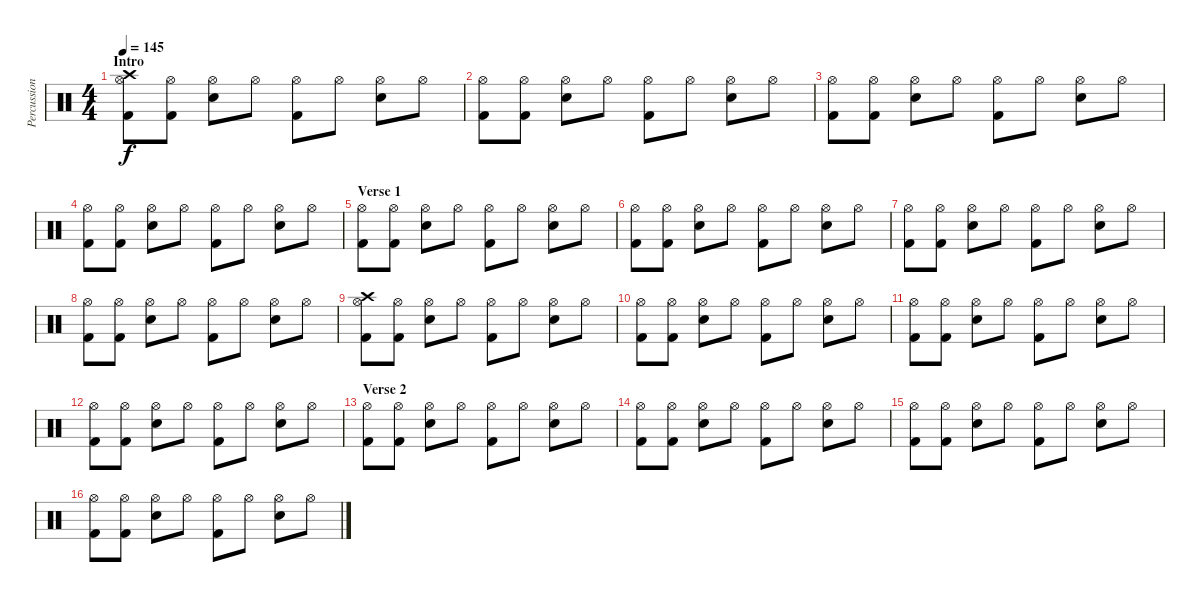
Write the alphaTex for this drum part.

\track ("Percussion" "Percussion") {instrument percussion}
\staff {score}
\articulation defaults
\ts (4 4)
\section ("" "Intro")
\tempo 145
\clef neutral
\ks c
("Hi-Hat (open)" "Kick (hit) 2" "Crash high (hit)").8{dy f} ("Hi-Hat (open)" "Kick (hit) 2").8 ("Hi-Hat (open)" "Snare (hit) 2").8 "Hi-Hat (open)".8 ("Hi-Hat (open)" "Kick (hit) 2").8 "Hi-Hat (open)".8 ("Hi-Hat (open)" "Snare (hit) 2").8 "Hi-Hat (open)".8 |
("Hi-Hat (open)" "Kick (hit) 2").8 ("Hi-Hat (open)" "Kick (hit) 2").8 ("Hi-Hat (open)" "Snare (hit) 2").8 "Hi-Hat (open)".8 ("Hi-Hat (open)" "Kick (hit) 2").8 "Hi-Hat (open)".8 ("Hi-Hat (open)" "Snare (hit) 2").8 "Hi-Hat (open)".8 |
("Hi-Hat (open)" "Kick (hit) 2").8 ("Hi-Hat (open)" "Kick (hit) 2").8 ("Hi-Hat (open)" "Snare (hit) 2").8 "Hi-Hat (open)".8 ("Hi-Hat (open)" "Kick (hit) 2").8 "Hi-Hat (open)".8 ("Hi-Hat (open)" "Snare (hit) 2").8 "Hi-Hat (open)".8 |
("Hi-Hat (open)" "Kick (hit) 2").8 ("Hi-Hat (open)" "Kick (hit) 2").8 ("Hi-Hat (open)" "Snare (hit) 2").8 "Hi-Hat (open)".8 ("Hi-Hat (open)" "Kick (hit) 2").8 "Hi-Hat (open)".8 ("Hi-Hat (open)" "Snare (hit) 2").8 "Hi-Hat (open)".8 |
\section ("" "Verse 1")
("Hi-Hat (open)" "Kick (hit) 2").8 ("Hi-Hat (open)" "Kick (hit) 2").8 ("Hi-Hat (open)" "Snare (hit) 2").8 "Hi-Hat (open)".8 ("Hi-Hat (open)" "Kick (hit) 2").8 "Hi-Hat (open)".8 ("Hi-Hat (open)" "Snare (hit) 2").8 "Hi-Hat (open)".8 |
("Hi-Hat (open)" "Kick (hit) 2").8 ("Hi-Hat (open)" "Kick (hit) 2").8 ("Hi-Hat (open)" "Snare (hit) 2").8 "Hi-Hat (open)".8 ("Hi-Hat (open)" "Kick (hit) 2").8 "Hi-Hat (open)".8 ("Hi-Hat (open)" "Snare (hit) 2").8 "Hi-Hat (open)".8 |
("Hi-Hat (open)" "Kick (hit) 2").8 ("Hi-Hat (open)" "Kick (hit) 2").8 ("Hi-Hat (open)" "Snare (hit) 2").8 "Hi-Hat (open)".8 ("Hi-Hat (open)" "Kick (hit) 2").8 "Hi-Hat (open)".8 ("Hi-Hat (open)" "Snare (hit) 2").8 "Hi-Hat (open)".8 |
("Hi-Hat (open)" "Kick (hit) 2").8 ("Hi-Hat (open)" "Kick (hit) 2").8 ("Hi-Hat (open)" "Snare (hit) 2").8 "Hi-Hat (open)".8 ("Hi-Hat (open)" "Kick (hit) 2").8 "Hi-Hat (open)".8 ("Hi-Hat (open)" "Snare (hit) 2").8 "Hi-Hat (open)".8 |
("Hi-Hat (open)" "Kick (hit) 2" "Crash high (hit)").8 ("Hi-Hat (open)" "Kick (hit) 2").8 ("Hi-Hat (open)" "Snare (hit) 2").8 "Hi-Hat (open)".8 ("Hi-Hat (open)" "Kick (hit) 2").8 "Hi-Hat (open)".8 ("Hi-Hat (open)" "Snare (hit) 2").8 "Hi-Hat (open)".8 |
("Hi-Hat (open)" "Kick (hit) 2").8 ("Hi-Hat (open)" "Kick (hit) 2").8 ("Hi-Hat (open)" "Snare (hit) 2").8 "Hi-Hat (open)".8 ("Hi-Hat (open)" "Kick (hit) 2").8 "Hi-Hat (open)".8 ("Hi-Hat (open)" "Snare (hit) 2").8 "Hi-Hat (open)".8 |
("Hi-Hat (open)" "Kick (hit) 2").8 ("Hi-Hat (open)" "Kick (hit) 2").8 ("Hi-Hat (open)" "Snare (hit) 2").8 "Hi-Hat (open)".8 ("Hi-Hat (open)" "Kick (hit) 2").8 "Hi-Hat (open)".8 ("Hi-Hat (open)" "Snare (hit) 2").8 "Hi-Hat (open)".8 |
("Hi-Hat (open)" "Kick (hit) 2").8 ("Hi-Hat (open)" "Kick (hit) 2").8 ("Hi-Hat (open)" "Snare (hit) 2").8 "Hi-Hat (open)".8 ("Hi-Hat (open)" "Kick (hit) 2").8 "Hi-Hat (open)".8 ("Hi-Hat (open)" "Snare (hit) 2").8 "Hi-Hat (open)".8 |
\section ("" "Verse 2")
("Hi-Hat (open)" "Kick (hit) 2").8 ("Hi-Hat (open)" "Kick (hit) 2").8 ("Hi-Hat (open)" "Snare (hit) 2").8 "Hi-Hat (open)".8 ("Hi-Hat (open)" "Kick (hit) 2").8 "Hi-Hat (open)".8 ("Hi-Hat (open)" "Snare (hit) 2").8 "Hi-Hat (open)".8 |
("Hi-Hat (open)" "Kick (hit) 2").8 ("Hi-Hat (open)" "Kick (hit) 2").8 ("Hi-Hat (open)" "Snare (hit) 2").8 "Hi-Hat (open)".8 ("Hi-Hat (open)" "Kick (hit) 2").8 "Hi-Hat (open)".8 ("Hi-Hat (open)" "Snare (hit) 2").8 "Hi-Hat (open)".8 |
("Hi-Hat (open)" "Kick (hit) 2").8 ("Hi-Hat (open)" "Kick (hit) 2").8 ("Hi-Hat (open)" "Snare (hit) 2").8 "Hi-Hat (open)".8 ("Hi-Hat (open)" "Kick (hit) 2").8 "Hi-Hat (open)".8 ("Hi-Hat (open)" "Snare (hit) 2").8 "Hi-Hat (open)".8 |
("Hi-Hat (open)" "Kick (hit) 2").8 ("Hi-Hat (open)" "Kick (hit) 2").8 ("Hi-Hat (open)" "Snare (hit) 2").8 "Hi-Hat (open)".8 ("Hi-Hat (open)" "Kick (hit) 2").8 "Hi-Hat (open)".8 ("Hi-Hat (open)" "Snare (hit) 2").8 "Hi-Hat (open)".8
